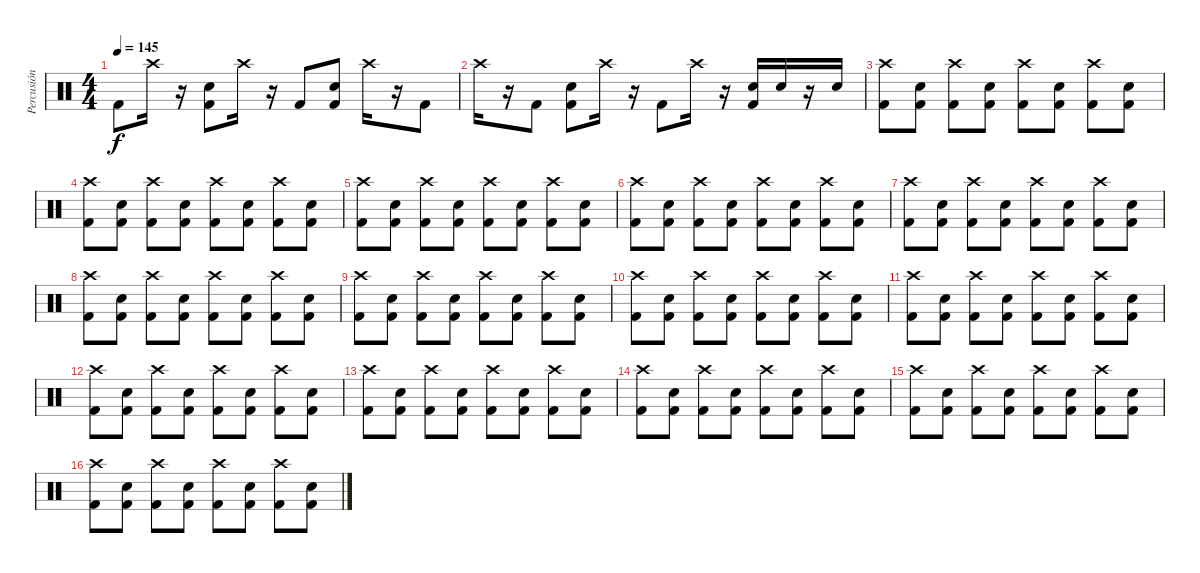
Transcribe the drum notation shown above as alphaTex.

\track ("Percusión" "Percusión") {instrument percussion}
\staff {score}
\articulation defaults
\ts (4 4)
\tempo 145
\clef neutral
\ks c "Kick (hit) 2".8{dy f} "Crash high (hit)".16
r.16 ("Electric Snare (hit)" "Kick (hit) 2").8 "Crash high (hit)".16 r.16 "Kick (hit) 2".8 ("Electric Snare (hit)" "Kick (hit) 2").8 "Crash high (hit)".16 r.16 "Kick (hit) 2".8 |
"Crash high (hit)".16 r.16 "Kick (hit) 2".8 ("Electric Snare (hit)" "Kick (hit) 2").8 "Crash high (hit)".16 r.16 "Kick (hit) 2".8 "Crash high (hit)".16 r.16 ("Electric Snare (hit)" "Kick (hit) 2").16 "Electric Snare (hit)".16 r.16 "Electric Snare (hit)".16 |
("Crash high (hit)" "Kick (hit) 2").8 ("Electric Snare (hit)" "Kick (hit) 2").8 ("Crash high (hit)" "Kick (hit) 2").8 ("Electric Snare (hit)" "Kick (hit) 2").8 ("Crash high (hit)" "Kick (hit) 2").8 ("Electric Snare (hit)" "Kick (hit) 2").8 ("Crash high (hit)" "Kick (hit) 2").8 ("Electric Snare (hit)" "Kick (hit) 2").8 |
("Crash high (hit)" "Kick (hit) 2").8 ("Electric Snare (hit)" "Kick (hit) 2").8 ("Crash high (hit)" "Kick (hit) 2").8 ("Electric Snare (hit)" "Kick (hit) 2").8 ("Crash high (hit)" "Kick (hit) 2").8 ("Electric Snare (hit)" "Kick (hit) 2").8 ("Crash high (hit)" "Kick (hit) 2").8 ("Electric Snare (hit)" "Kick (hit) 2").8 |
("Crash high (hit)" "Kick (hit) 2").8 ("Electric Snare (hit)" "Kick (hit) 2").8 ("Crash high (hit)" "Kick (hit) 2").8 ("Electric Snare (hit)" "Kick (hit) 2").8 ("Crash high (hit)" "Kick (hit) 2").8 ("Electric Snare (hit)" "Kick (hit) 2").8 ("Crash high (hit)" "Kick (hit) 2").8 ("Electric Snare (hit)" "Kick (hit) 2").8 |
("Crash high (hit)" "Kick (hit) 2").8 ("Electric Snare (hit)" "Kick (hit) 2").8 ("Crash high (hit)" "Kick (hit) 2").8 ("Electric Snare (hit)" "Kick (hit) 2").8 ("Crash high (hit)" "Kick (hit) 2").8 ("Electric Snare (hit)" "Kick (hit) 2").8 ("Crash high (hit)" "Kick (hit) 2").8 ("Electric Snare (hit)" "Kick (hit) 2").8 |
("Crash high (hit)" "Kick (hit) 2").8 ("Electric Snare (hit)" "Kick (hit) 2").8 ("Crash high (hit)" "Kick (hit) 2").8 ("Electric Snare (hit)" "Kick (hit) 2").8 ("Crash high (hit)" "Kick (hit) 2").8 ("Electric Snare (hit)" "Kick (hit) 2").8 ("Crash high (hit)" "Kick (hit) 2").8 ("Electric Snare (hit)" "Kick (hit) 2").8 |
("Crash high (hit)" "Kick (hit) 2").8 ("Electric Snare (hit)" "Kick (hit) 2").8 ("Crash high (hit)" "Kick (hit) 2").8 ("Electric Snare (hit)" "Kick (hit) 2").8 ("Crash high (hit)" "Kick (hit) 2").8 ("Electric Snare (hit)" "Kick (hit) 2").8 ("Crash high (hit)" "Kick (hit) 2").8 ("Electric Snare (hit)" "Kick (hit) 2").8 |
("Crash high (hit)" "Kick (hit) 2").8 ("Electric Snare (hit)" "Kick (hit) 2").8 ("Crash high (hit)" "Kick (hit) 2").8 ("Electric Snare (hit)" "Kick (hit) 2").8 ("Crash high (hit)" "Kick (hit) 2").8 ("Electric Snare (hit)" "Kick (hit) 2").8 ("Crash high (hit)" "Kick (hit) 2").8 ("Electric Snare (hit)" "Kick (hit) 2").8 |
("Crash high (hit)" "Kick (hit) 2").8 ("Electric Snare (hit)" "Kick (hit) 2").8 ("Crash high (hit)" "Kick (hit) 2").8 ("Electric Snare (hit)" "Kick (hit) 2").8 ("Crash high (hit)" "Kick (hit) 2").8 ("Electric Snare (hit)" "Kick (hit) 2").8 ("Crash high (hit)" "Kick (hit) 2").8 ("Electric Snare (hit)" "Kick (hit) 2").8 |
("Crash high (hit)" "Kick (hit) 2").8 ("Electric Snare (hit)" "Kick (hit) 2").8 ("Crash high (hit)" "Kick (hit) 2").8 ("Electric Snare (hit)" "Kick (hit) 2").8 ("Crash high (hit)" "Kick (hit) 2").8 ("Electric Snare (hit)" "Kick (hit) 2").8 ("Crash high (hit)" "Kick (hit) 2").8 ("Electric Snare (hit)" "Kick (hit) 2").8 |
("Crash high (hit)" "Kick (hit) 2").8 ("Electric Snare (hit)" "Kick (hit) 2").8 ("Crash high (hit)" "Kick (hit) 2").8 ("Electric Snare (hit)" "Kick (hit) 2").8 ("Crash high (hit)" "Kick (hit) 2").8 ("Electric Snare (hit)" "Kick (hit) 2").8 ("Crash high (hit)" "Kick (hit) 2").8 ("Electric Snare (hit)" "Kick (hit) 2").8 |
("Crash high (hit)" "Kick (hit) 2").8 ("Electric Snare (hit)" "Kick (hit) 2").8 ("Crash high (hit)" "Kick (hit) 2").8 ("Electric Snare (hit)" "Kick (hit) 2").8 ("Crash high (hit)" "Kick (hit) 2").8 ("Electric Snare (hit)" "Kick (hit) 2").8 ("Crash high (hit)" "Kick (hit) 2").8 ("Electric Snare (hit)" "Kick (hit) 2").8 |
("Crash high (hit)" "Kick (hit) 2").8 ("Electric Snare (hit)" "Kick (hit) 2").8 ("Crash high (hit)" "Kick (hit) 2").8 ("Electric Snare (hit)" "Kick (hit) 2").8 ("Crash high (hit)" "Kick (hit) 2").8 ("Electric Snare (hit)" "Kick (hit) 2").8 ("Crash high (hit)" "Kick (hit) 2").8 ("Electric Snare (hit)" "Kick (hit) 2").8 |
("Crash high (hit)" "Kick (hit) 2").8 ("Electric Snare (hit)" "Kick (hit) 2").8 ("Crash high (hit)" "Kick (hit) 2").8 ("Electric Snare (hit)" "Kick (hit) 2").8 ("Crash high (hit)" "Kick (hit) 2").8 ("Electric Snare (hit)" "Kick (hit) 2").8 ("Crash high (hit)" "Kick (hit) 2").8 ("Electric Snare (hit)" "Kick (hit) 2").8 |
("Crash high (hit)" "Kick (hit) 2").8 ("Electric Snare (hit)" "Kick (hit) 2").8 ("Crash high (hit)" "Kick (hit) 2").8 ("Electric Snare (hit)" "Kick (hit) 2").8 ("Crash high (hit)" "Kick (hit) 2").8 ("Electric Snare (hit)" "Kick (hit) 2").8 ("Crash high (hit)" "Kick (hit) 2").8 ("Electric Snare (hit)" "Kick (hit) 2").8
